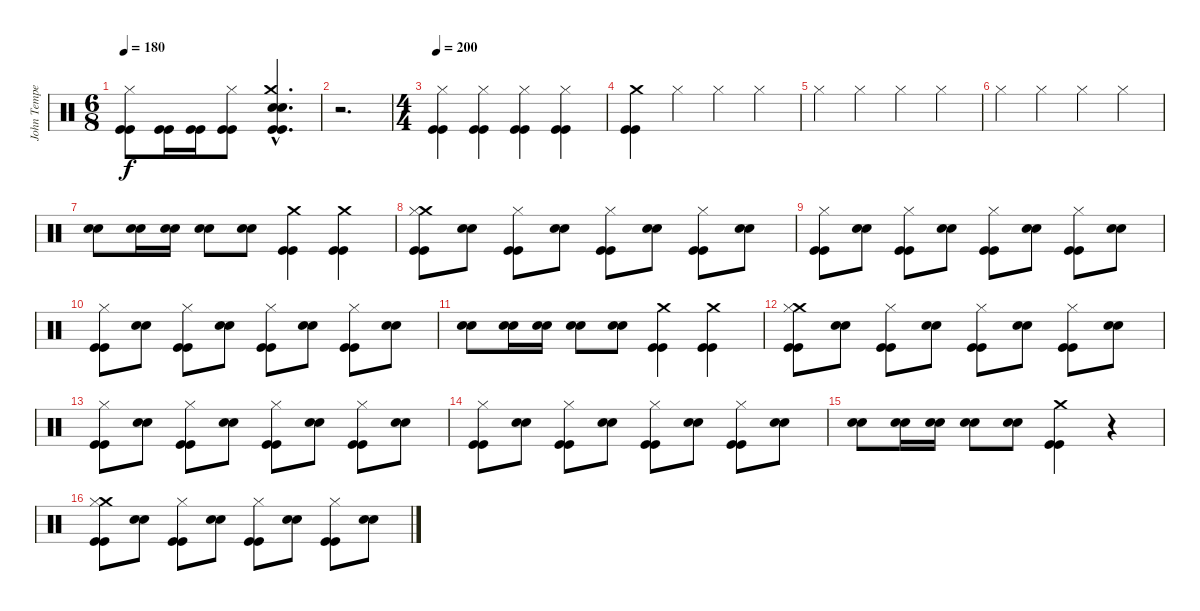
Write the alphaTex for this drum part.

\track ("John Tempesta" "John Tempe") {instrument percussion}
\staff {score}
\articulation defaults
\ts (6 8)
\tempo 180
\clef neutral
\ks c
("Hi-Hat (closed)" "Kick (hit)" "Kick (hit)").8{dy f} ("Kick (hit)" "Kick (hit)").16 ("Kick (hit)" "Kick (hit)").16 ("Hi-Hat (closed)" "Kick (hit)" "Kick (hit)").8 ("Crash medium (hit)"{hac} "Snare (hit) 2"{hac} "Snare (hit) 2"{hac} "Kick (hit)"{hac} "Kick (hit)"{hac}).4{d} |
r.2{d} |
\ts (4 4)
\tempo 200
("Hi-Hat (closed)" "Kick (hit)" "Kick (hit)").4 ("Hi-Hat (closed)" "Kick (hit)" "Kick (hit)").4 ("Hi-Hat (closed)" "Kick (hit)" "Kick (hit)").4 ("Hi-Hat (closed)" "Kick (hit)" "Kick (hit)").4 |
("Crash medium (hit)" "Kick (hit)" "Kick (hit)").4 "Hi-Hat (closed)".4 "Hi-Hat (closed)".4 "Hi-Hat (closed)".4 |
"Hi-Hat (closed)".4 "Hi-Hat (closed)".4 "Hi-Hat (closed)".4 "Hi-Hat (closed)".4 |
"Hi-Hat (closed)".4 "Hi-Hat (closed)".4 "Hi-Hat (closed)".4 "Hi-Hat (closed)".4 |
("Snare (hit) 2" "Snare (hit) 2").8 ("Snare (hit) 2" "Snare (hit) 2").16 ("Snare (hit) 2" "Snare (hit) 2").16 ("Snare (hit) 2" "Snare (hit) 2").8 ("Snare (hit) 2" "Snare (hit) 2").8 ("Crash medium (hit)" "Kick (hit)" "Kick (hit)").4 ("Crash medium (hit)" "Kick (hit)" "Kick (hit)").4 |
("Crash medium (hit)" "Hi-Hat (closed)" "Kick (hit)" "Kick (hit)").8 ("Snare (hit) 2" "Snare (hit) 2").8 ("Hi-Hat (closed)" "Kick (hit)" "Kick (hit)").8 ("Snare (hit) 2" "Snare (hit) 2").8 ("Hi-Hat (closed)" "Kick (hit)" "Kick (hit)").8 ("Snare (hit) 2" "Snare (hit) 2").8 ("Hi-Hat (closed)" "Kick (hit)" "Kick (hit)").8 ("Snare (hit) 2" "Snare (hit) 2").8 |
("Hi-Hat (closed)" "Kick (hit)" "Kick (hit)").8 ("Snare (hit) 2" "Snare (hit) 2").8 ("Hi-Hat (closed)" "Kick (hit)" "Kick (hit)").8 ("Snare (hit) 2" "Snare (hit) 2").8 ("Hi-Hat (closed)" "Kick (hit)" "Kick (hit)").8 ("Snare (hit) 2" "Snare (hit) 2").8 ("Hi-Hat (closed)" "Kick (hit)" "Kick (hit)").8 ("Snare (hit) 2" "Snare (hit) 2").8 |
("Hi-Hat (closed)" "Kick (hit)" "Kick (hit)").8 ("Snare (hit) 2" "Snare (hit) 2").8 ("Hi-Hat (closed)" "Kick (hit)" "Kick (hit)").8 ("Snare (hit) 2" "Snare (hit) 2").8 ("Hi-Hat (closed)" "Kick (hit)" "Kick (hit)").8 ("Snare (hit) 2" "Snare (hit) 2").8 ("Hi-Hat (closed)" "Kick (hit)" "Kick (hit)").8 ("Snare (hit) 2" "Snare (hit) 2").8 |
("Snare (hit) 2" "Snare (hit) 2").8 ("Snare (hit) 2" "Snare (hit) 2").16 ("Snare (hit) 2" "Snare (hit) 2").16 ("Snare (hit) 2" "Snare (hit) 2").8 ("Snare (hit) 2" "Snare (hit) 2").8 ("Crash medium (hit)" "Kick (hit)" "Kick (hit)").4 ("Crash medium (hit)" "Kick (hit)" "Kick (hit)").4 |
("Crash medium (hit)" "Hi-Hat (closed)" "Kick (hit)" "Kick (hit)").8 ("Snare (hit) 2" "Snare (hit) 2").8 ("Hi-Hat (closed)" "Kick (hit)" "Kick (hit)").8 ("Snare (hit) 2" "Snare (hit) 2").8 ("Hi-Hat (closed)" "Kick (hit)" "Kick (hit)").8 ("Snare (hit) 2" "Snare (hit) 2").8 ("Hi-Hat (closed)" "Kick (hit)" "Kick (hit)").8 ("Snare (hit) 2" "Snare (hit) 2").8 |
("Hi-Hat (closed)" "Kick (hit)" "Kick (hit)").8 ("Snare (hit) 2" "Snare (hit) 2").8 ("Hi-Hat (closed)" "Kick (hit)" "Kick (hit)").8 ("Snare (hit) 2" "Snare (hit) 2").8 ("Hi-Hat (closed)" "Kick (hit)" "Kick (hit)").8 ("Snare (hit) 2" "Snare (hit) 2").8 ("Hi-Hat (closed)" "Kick (hit)" "Kick (hit)").8 ("Snare (hit) 2" "Snare (hit) 2").8 |
("Hi-Hat (closed)" "Kick (hit)" "Kick (hit)").8 ("Snare (hit) 2" "Snare (hit) 2").8 ("Hi-Hat (closed)" "Kick (hit)" "Kick (hit)").8 ("Snare (hit) 2" "Snare (hit) 2").8 ("Hi-Hat (closed)" "Kick (hit)" "Kick (hit)").8 ("Snare (hit) 2" "Snare (hit) 2").8 ("Hi-Hat (closed)" "Kick (hit)" "Kick (hit)").8 ("Snare (hit) 2" "Snare (hit) 2").8 |
("Snare (hit) 2" "Snare (hit) 2").8 ("Snare (hit) 2" "Snare (hit) 2").16 ("Snare (hit) 2" "Snare (hit) 2").16 ("Snare (hit) 2" "Snare (hit) 2").8 ("Snare (hit) 2" "Snare (hit) 2").8 ("Crash medium (hit)" "Kick (hit)" "Kick (hit)").4 r.4 |
("Crash medium (hit)" "Hi-Hat (closed)" "Kick (hit)" "Kick (hit)").8 ("Snare (hit) 2" "Snare (hit) 2").8 ("Hi-Hat (closed)" "Kick (hit)" "Kick (hit)").8 ("Snare (hit) 2" "Snare (hit) 2").8 ("Hi-Hat (closed)" "Kick (hit)" "Kick (hit)").8 ("Snare (hit) 2" "Snare (hit) 2").8 ("Hi-Hat (closed)" "Kick (hit)" "Kick (hit)").8 ("Snare (hit) 2" "Snare (hit) 2").8
